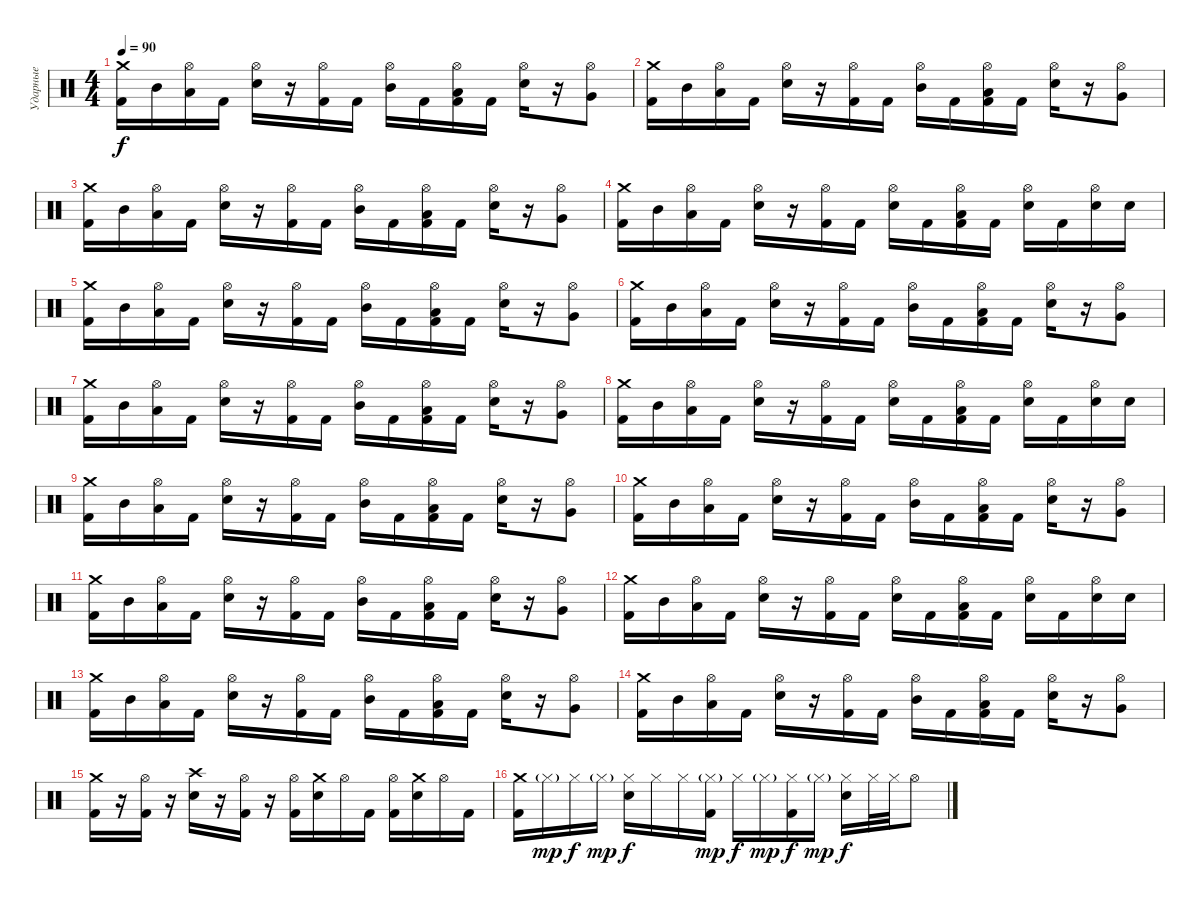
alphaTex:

\track ("Ударные" "Ударные") {instrument percussion}
\staff {score}
\articulation defaults
\ts (4 4)
\tempo 90
\clef neutral
\ks c
("Crash medium (hit)" "Kick (hit) 2").16{dy f} "Mid Tom (hit)".16 ("Hi-Hat (open)" "Low Tom (hit)").16 "Kick (hit) 2".16 ("Hi-Hat (open)" "Snare (hit) 2").16 r.16 ("Hi-Hat (open)" "Kick (hit) 2").16 "Kick (hit) 2".16 ("Hi-Hat (open)" "Mid Tom (hit)").16 "Kick (hit) 2".16 ("Hi-Hat (open)" "Low Tom (hit)" "Kick (hit) 2").16 "Kick (hit) 2".16 ("Hi-Hat (open)" "Snare (hit) 2").16 r.16 ("Hi-Hat (open)" "Very Low Tom (hit)").8 |
("Crash medium (hit)" "Kick (hit) 2").16 "Mid Tom (hit)".16 ("Hi-Hat (open)" "Low Tom (hit)").16 "Kick (hit) 2".16 ("Hi-Hat (open)" "Snare (hit) 2").16 r.16 ("Hi-Hat (open)" "Kick (hit) 2").16 "Kick (hit) 2".16 ("Hi-Hat (open)" "Mid Tom (hit)").16 "Kick (hit) 2".16 ("Hi-Hat (open)" "Low Tom (hit)" "Kick (hit) 2").16 "Kick (hit) 2".16 ("Hi-Hat (open)" "Snare (hit) 2").16 r.16 ("Hi-Hat (open)" "Very Low Tom (hit)").8 |
("Crash medium (hit)" "Kick (hit) 2").16 "Mid Tom (hit)".16 ("Hi-Hat (open)" "Low Tom (hit)").16 "Kick (hit) 2".16 ("Hi-Hat (open)" "Snare (hit) 2").16 r.16 ("Hi-Hat (open)" "Kick (hit) 2").16 "Kick (hit) 2".16 ("Hi-Hat (open)" "Mid Tom (hit)").16 "Kick (hit) 2".16 ("Hi-Hat (open)" "Low Tom (hit)" "Kick (hit) 2").16 "Kick (hit) 2".16 ("Hi-Hat (open)" "Snare (hit) 2").16 r.16 ("Hi-Hat (open)" "Very Low Tom (hit)").8 |
("Crash medium (hit)" "Kick (hit) 2").16 "Mid Tom (hit)".16 ("Hi-Hat (open)" "Low Tom (hit)").16 "Kick (hit) 2".16 ("Hi-Hat (open)" "Snare (hit) 2").16 r.16 ("Hi-Hat (open)" "Kick (hit) 2").16 "Kick (hit) 2".16 ("Hi-Hat (open)" "Snare (hit) 2").16 "Kick (hit) 2".16 ("Hi-Hat (open)" "Low Tom (hit)" "Kick (hit) 2").16 "Kick (hit) 2".16 ("Hi-Hat (open)" "Snare (hit) 2").16 "Kick (hit) 2".16 ("Hi-Hat (open)" "Snare (hit) 2").16 "Snare (hit) 2".16 |
("Crash medium (hit)" "Kick (hit) 2").16 "Mid Tom (hit)".16 ("Hi-Hat (open)" "Low Tom (hit)").16 "Kick (hit) 2".16 ("Hi-Hat (open)" "Snare (hit) 2").16 r.16 ("Hi-Hat (open)" "Kick (hit) 2").16 "Kick (hit) 2".16 ("Hi-Hat (open)" "Mid Tom (hit)").16 "Kick (hit) 2".16 ("Hi-Hat (open)" "Low Tom (hit)" "Kick (hit) 2").16 "Kick (hit) 2".16 ("Hi-Hat (open)" "Snare (hit) 2").16 r.16 ("Hi-Hat (open)" "Very Low Tom (hit)").8 |
("Crash medium (hit)" "Kick (hit) 2").16 "Mid Tom (hit)".16 ("Hi-Hat (open)" "Low Tom (hit)").16 "Kick (hit) 2".16 ("Hi-Hat (open)" "Snare (hit) 2").16 r.16 ("Hi-Hat (open)" "Kick (hit) 2").16 "Kick (hit) 2".16 ("Hi-Hat (open)" "Mid Tom (hit)").16 "Kick (hit) 2".16 ("Hi-Hat (open)" "Low Tom (hit)" "Kick (hit) 2").16 "Kick (hit) 2".16 ("Hi-Hat (open)" "Snare (hit) 2").16 r.16 ("Hi-Hat (open)" "Very Low Tom (hit)").8 |
("Crash medium (hit)" "Kick (hit) 2").16 "Mid Tom (hit)".16 ("Hi-Hat (open)" "Low Tom (hit)").16 "Kick (hit) 2".16 ("Hi-Hat (open)" "Snare (hit) 2").16 r.16 ("Hi-Hat (open)" "Kick (hit) 2").16 "Kick (hit) 2".16 ("Hi-Hat (open)" "Mid Tom (hit)").16 "Kick (hit) 2".16 ("Hi-Hat (open)" "Low Tom (hit)" "Kick (hit) 2").16 "Kick (hit) 2".16 ("Hi-Hat (open)" "Snare (hit) 2").16 r.16 ("Hi-Hat (open)" "Very Low Tom (hit)").8 |
("Crash medium (hit)" "Kick (hit) 2").16 "Mid Tom (hit)".16 ("Hi-Hat (open)" "Low Tom (hit)").16 "Kick (hit) 2".16 ("Hi-Hat (open)" "Snare (hit) 2").16 r.16 ("Hi-Hat (open)" "Kick (hit) 2").16 "Kick (hit) 2".16 ("Hi-Hat (open)" "Snare (hit) 2").16 "Kick (hit) 2".16 ("Hi-Hat (open)" "Low Tom (hit)" "Kick (hit) 2").16 "Kick (hit) 2".16 ("Hi-Hat (open)" "Snare (hit) 2").16 "Kick (hit) 2".16 ("Hi-Hat (open)" "Snare (hit) 2").16 "Snare (hit) 2".16 |
("Crash medium (hit)" "Kick (hit) 2").16 "Mid Tom (hit)".16 ("Hi-Hat (open)" "Low Tom (hit)").16 "Kick (hit) 2".16 ("Hi-Hat (open)" "Snare (hit) 2").16 r.16 ("Hi-Hat (open)" "Kick (hit) 2").16 "Kick (hit) 2".16 ("Hi-Hat (open)" "Mid Tom (hit)").16 "Kick (hit) 2".16 ("Hi-Hat (open)" "Low Tom (hit)" "Kick (hit) 2").16 "Kick (hit) 2".16 ("Hi-Hat (open)" "Snare (hit) 2").16 r.16 ("Hi-Hat (open)" "Very Low Tom (hit)").8 |
("Crash medium (hit)" "Kick (hit) 2").16 "Mid Tom (hit)".16 ("Hi-Hat (open)" "Low Tom (hit)").16 "Kick (hit) 2".16 ("Hi-Hat (open)" "Snare (hit) 2").16 r.16 ("Hi-Hat (open)" "Kick (hit) 2").16 "Kick (hit) 2".16 ("Hi-Hat (open)" "Mid Tom (hit)").16 "Kick (hit) 2".16 ("Hi-Hat (open)" "Low Tom (hit)" "Kick (hit) 2").16 "Kick (hit) 2".16 ("Hi-Hat (open)" "Snare (hit) 2").16 r.16 ("Hi-Hat (open)" "Very Low Tom (hit)").8 |
("Crash medium (hit)" "Kick (hit) 2").16 "Mid Tom (hit)".16 ("Hi-Hat (open)" "Low Tom (hit)").16 "Kick (hit) 2".16 ("Hi-Hat (open)" "Snare (hit) 2").16 r.16 ("Hi-Hat (open)" "Kick (hit) 2").16 "Kick (hit) 2".16 ("Hi-Hat (open)" "Mid Tom (hit)").16 "Kick (hit) 2".16 ("Hi-Hat (open)" "Low Tom (hit)" "Kick (hit) 2").16 "Kick (hit) 2".16 ("Hi-Hat (open)" "Snare (hit) 2").16 r.16 ("Hi-Hat (open)" "Very Low Tom (hit)").8 |
("Crash medium (hit)" "Kick (hit) 2").16 "Mid Tom (hit)".16 ("Hi-Hat (open)" "Low Tom (hit)").16 "Kick (hit) 2".16 ("Hi-Hat (open)" "Snare (hit) 2").16 r.16 ("Hi-Hat (open)" "Kick (hit) 2").16 "Kick (hit) 2".16 ("Hi-Hat (open)" "Snare (hit) 2").16 "Kick (hit) 2".16 ("Hi-Hat (open)" "Low Tom (hit)" "Kick (hit) 2").16 "Kick (hit) 2".16 ("Hi-Hat (open)" "Snare (hit) 2").16 "Kick (hit) 2".16 ("Hi-Hat (open)" "Snare (hit) 2").16 "Snare (hit) 2".16 |
("Crash medium (hit)" "Kick (hit) 2").16 "Mid Tom (hit)".16 ("Hi-Hat (open)" "Low Tom (hit)").16 "Kick (hit) 2".16 ("Hi-Hat (open)" "Snare (hit) 2").16 r.16 ("Hi-Hat (open)" "Kick (hit) 2").16 "Kick (hit) 2".16 ("Hi-Hat (open)" "Mid Tom (hit)").16 "Kick (hit) 2".16 ("Hi-Hat (open)" "Low Tom (hit)" "Kick (hit) 2").16 "Kick (hit) 2".16 ("Hi-Hat (open)" "Snare (hit) 2").16 r.16 ("Hi-Hat (open)" "Very Low Tom (hit)").8 |
("Crash medium (hit)" "Kick (hit) 2").16 "Mid Tom (hit)".16 ("Hi-Hat (open)" "Low Tom (hit)").16 "Kick (hit) 2".16 ("Hi-Hat (open)" "Snare (hit) 2").16 r.16 ("Hi-Hat (open)" "Kick (hit) 2").16 "Kick (hit) 2".16 ("Hi-Hat (open)" "Mid Tom (hit)").16 "Kick (hit) 2".16 ("Hi-Hat (open)" "Low Tom (hit)" "Kick (hit) 2").16 "Kick (hit) 2".16 ("Hi-Hat (open)" "Snare (hit) 2").16 r.16 ("Hi-Hat (open)" "Very Low Tom (hit)").8 |
("Crash medium (hit)" "Kick (hit) 2").16 r.16 ("Hi-Hat (open)" "Kick (hit) 2").16 r.16 ("Crash high (hit)" "Snare (hit) 2").16 r.16 ("Hi-Hat (open)" "Kick (hit) 2").16 r.16 ("Hi-Hat (open)" "Kick (hit) 2").16 ("Crash medium (hit)" "Snare (hit) 2").16 "Hi-Hat (open)".16 "Kick (hit) 2".16 ("Hi-Hat (open)" "Kick (hit) 2").16 ("Crash medium (hit)" "Snare (hit) 2").16 "Hi-Hat (open)".16 "Kick (hit) 2".16 |
("Crash medium (hit)" "Kick (hit) 2").16 "Hi-Hat (closed)"{g}.16{dy mp} "Hi-Hat (closed)".16{dy f} "Hi-Hat (closed)"{g}.16{dy mp} ("Hi-Hat (closed)" "Snare (hit) 2").16{dy f} "Hi-Hat (closed)".16 "Hi-Hat (closed)".16 ("Hi-Hat (closed)"{g} "Kick (hit) 2").16{dy mp} "Hi-Hat (closed)".16{dy f} "Hi-Hat (closed)"{g}.16{dy mp} ("Hi-Hat (closed)" "Kick (hit) 2").16{dy f} "Hi-Hat (closed)"{g}.16{dy mp} ("Hi-Hat (closed)" "Snare (hit) 2").16{dy f} "Hi-Hat (closed)".32 "Hi-Hat (closed)".32 "Hi-Hat (open)".8
